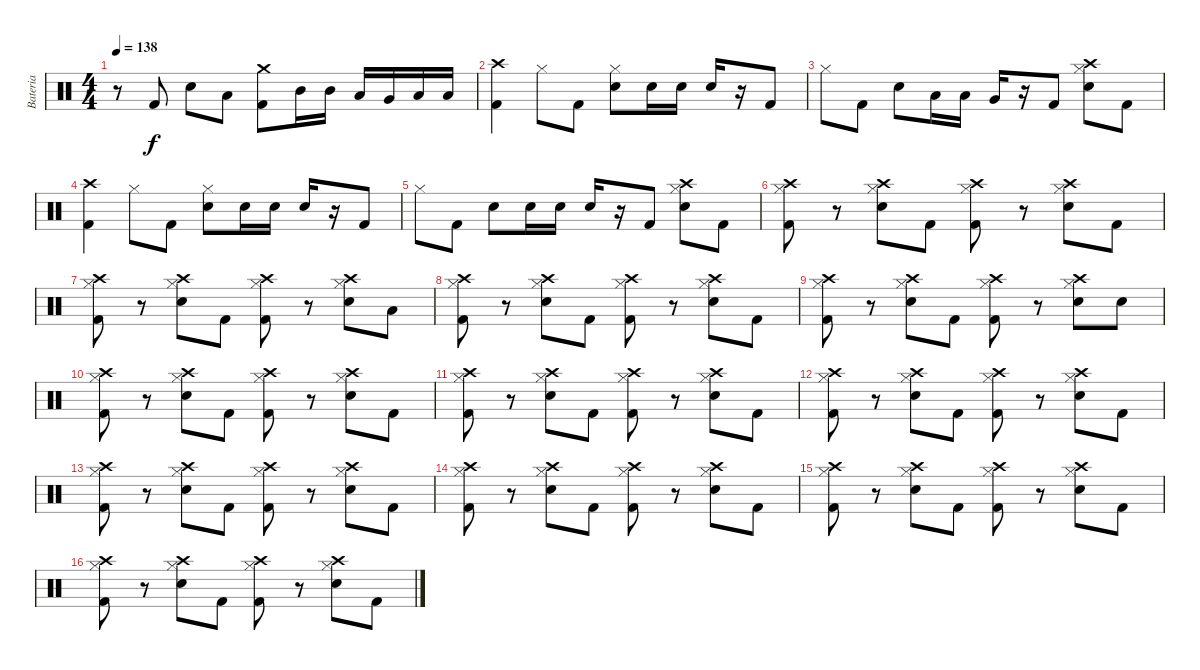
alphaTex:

\track ("Bateria" "Bateria") {instrument percussion}
\staff {score}
\articulation defaults
\ts (4 4)
\tempo 138
\clef neutral
\ks c
r.8{dy f} "Kick (hit) 2".8 "Electric Snare (hit)".8 "Low Tom (hit)".8 ("Crash medium (hit)" "Kick (hit) 2").8 "Mid Tom (hit)".16 "Mid Tom (hit)".16 "Low Tom (hit)".16 "Very Low Tom (hit)".16 "Low Floor Tom (hit)".16 "Low Floor Tom (hit)".16 |
("Crash high (hit)" "Kick (hit) 2").4 "Hi-Hat (closed)".8 "Kick (hit) 2".8 ("Hi-Hat (closed)" "Electric Snare (hit)").8 "Electric Snare (hit)".16 "Electric Snare (hit)".16 "Electric Snare (hit)".16 r.16 "Kick (hit) 2".8 |
"Hi-Hat (closed)".8 "Kick (hit) 2".8 "Electric Snare (hit)".8 "Low Tom (hit)".16 "Low Tom (hit)".16 "Very Low Tom (hit)".16 r.16 "Kick (hit) 2".8 ("Crash high (hit)" "Hi-Hat (closed)" "Electric Snare (hit)").8 "Kick (hit) 2".8 |
("Crash high (hit)" "Kick (hit) 2").4 "Hi-Hat (closed)".8 "Kick (hit) 2".8 ("Hi-Hat (closed)" "Electric Snare (hit)").8 "Electric Snare (hit)".16 "Electric Snare (hit)".16 "Electric Snare (hit)".16 r.16 "Kick (hit) 2".8 |
"Hi-Hat (closed)".8 "Kick (hit) 2".8 "Electric Snare (hit)".8 "Electric Snare (hit)".16 "Electric Snare (hit)".16 "Electric Snare (hit)".16 r.16 "Kick (hit) 2".8 ("Crash high (hit)" "Hi-Hat (closed)" "Electric Snare (hit)").8 "Kick (hit) 2".8 |
("Crash high (hit)" "Hi-Hat (closed)" "Kick (hit) 2").8 r.8 ("Crash high (hit)" "Hi-Hat (closed)" "Electric Snare (hit)").8 "Kick (hit) 2".8 ("Crash high (hit)" "Hi-Hat (closed)" "Kick (hit) 2").8 r.8 ("Crash high (hit)" "Hi-Hat (closed)" "Electric Snare (hit)").8 "Kick (hit) 2".8 |
("Crash high (hit)" "Hi-Hat (closed)" "Kick (hit) 2").8 r.8 ("Crash high (hit)" "Hi-Hat (closed)" "Electric Snare (hit)").8 "Kick (hit) 2".8 ("Crash high (hit)" "Hi-Hat (closed)" "Kick (hit) 2").8 r.8 ("Crash high (hit)" "Hi-Hat (closed)" "Electric Snare (hit)").8 "Low Tom (hit)".8 |
("Crash high (hit)" "Hi-Hat (closed)" "Kick (hit) 2").8 r.8 ("Crash high (hit)" "Hi-Hat (closed)" "Electric Snare (hit)").8 "Kick (hit) 2".8 ("Crash high (hit)" "Hi-Hat (closed)" "Kick (hit) 2").8 r.8 ("Crash high (hit)" "Hi-Hat (closed)" "Electric Snare (hit)").8 "Kick (hit) 2".8 |
("Crash high (hit)" "Hi-Hat (closed)" "Kick (hit) 2").8 r.8 ("Crash high (hit)" "Hi-Hat (closed)" "Electric Snare (hit)").8 "Kick (hit) 2".8 ("Crash high (hit)" "Hi-Hat (closed)" "Kick (hit) 2").8 r.8 ("Crash high (hit)" "Hi-Hat (closed)" "Electric Snare (hit)").8 "Electric Snare (hit)".8 |
("Crash high (hit)" "Hi-Hat (closed)" "Kick (hit) 2").8 r.8 ("Crash high (hit)" "Hi-Hat (closed)" "Electric Snare (hit)").8 "Kick (hit) 2".8 ("Crash high (hit)" "Hi-Hat (closed)" "Kick (hit) 2").8 r.8 ("Crash high (hit)" "Hi-Hat (closed)" "Electric Snare (hit)").8 "Kick (hit) 2".8 |
("Crash high (hit)" "Hi-Hat (closed)" "Kick (hit) 2").8 r.8 ("Crash high (hit)" "Hi-Hat (closed)" "Electric Snare (hit)").8 "Kick (hit) 2".8 ("Crash high (hit)" "Hi-Hat (closed)" "Kick (hit) 2").8 r.8 ("Crash high (hit)" "Hi-Hat (closed)" "Electric Snare (hit)").8 "Kick (hit) 2".8 |
("Crash high (hit)" "Hi-Hat (closed)" "Kick (hit) 2").8 r.8 ("Crash high (hit)" "Hi-Hat (closed)" "Electric Snare (hit)").8 "Kick (hit) 2".8 ("Crash high (hit)" "Hi-Hat (closed)" "Kick (hit) 2").8 r.8 ("Crash high (hit)" "Hi-Hat (closed)" "Electric Snare (hit)").8 "Kick (hit) 2".8 |
("Crash high (hit)" "Hi-Hat (closed)" "Kick (hit) 2").8 r.8 ("Crash high (hit)" "Hi-Hat (closed)" "Electric Snare (hit)").8 "Kick (hit) 2".8 ("Crash high (hit)" "Hi-Hat (closed)" "Kick (hit) 2").8 r.8 ("Crash high (hit)" "Hi-Hat (closed)" "Electric Snare (hit)").8 "Kick (hit) 2".8 |
("Crash high (hit)" "Hi-Hat (closed)" "Kick (hit) 2").8 r.8 ("Crash high (hit)" "Hi-Hat (closed)" "Electric Snare (hit)").8 "Kick (hit) 2".8 ("Crash high (hit)" "Hi-Hat (closed)" "Kick (hit) 2").8 r.8 ("Crash high (hit)" "Hi-Hat (closed)" "Electric Snare (hit)").8 "Kick (hit) 2".8 |
("Crash high (hit)" "Hi-Hat (closed)" "Kick (hit) 2").8 r.8 ("Crash high (hit)" "Hi-Hat (closed)" "Electric Snare (hit)").8 "Kick (hit) 2".8 ("Crash high (hit)" "Hi-Hat (closed)" "Kick (hit) 2").8 r.8 ("Crash high (hit)" "Hi-Hat (closed)" "Electric Snare (hit)").8 "Kick (hit) 2".8 |
("Crash high (hit)" "Hi-Hat (closed)" "Kick (hit) 2").8 r.8 ("Crash high (hit)" "Hi-Hat (closed)" "Electric Snare (hit)").8 "Kick (hit) 2".8 ("Crash high (hit)" "Hi-Hat (closed)" "Kick (hit) 2").8 r.8 ("Crash high (hit)" "Hi-Hat (closed)" "Electric Snare (hit)").8 "Kick (hit) 2".8
